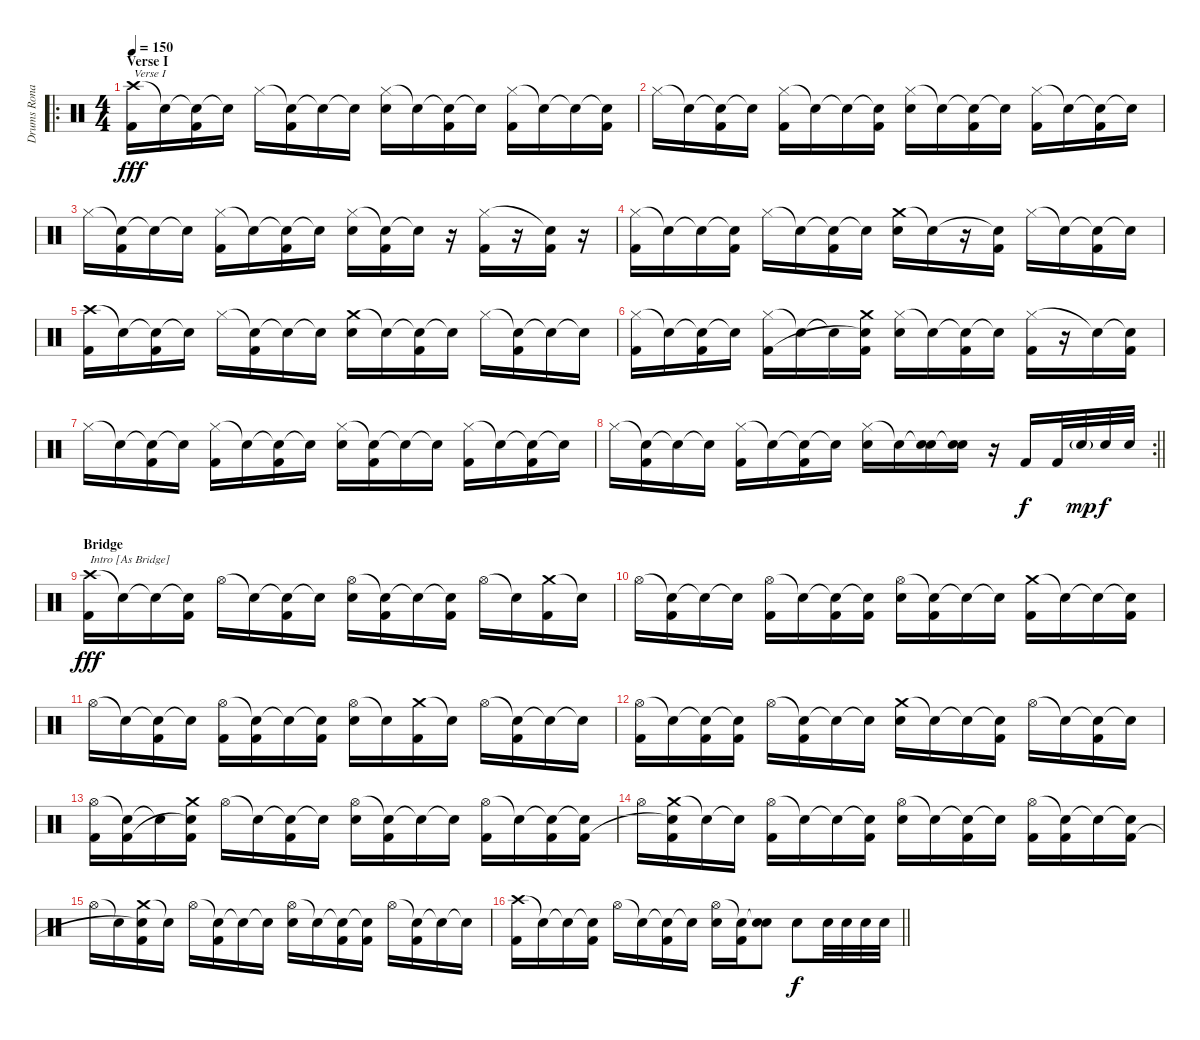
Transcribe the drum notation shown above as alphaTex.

\track ("Drums Ronald Reagen FTW" "Drums Rona") {instrument percussion}
\staff {score}
\articulation defaults
\ro
\ts (4 4)
\section ("" "Verse I")
\tempo 150
\clef neutral
\ks c
("Crash high (hit)" "Kick (hit) 2").16{txt "Verse I" dy fff} "Snare (hit)"{t}.16 ("Snare (hit)"{t} "Kick (hit) 2").16 "Snare (hit)"{t}.16 "Hi-Hat (closed)".16 ("Snare (hit)"{t} "Kick (hit) 2").16 "Snare (hit)"{t}.16 "Snare (hit)"{t}.16 ("Hi-Hat (closed)" "Electric Snare (hit)").16 "Snare (hit)"{t}.16 ("Snare (hit)"{t} "Kick (hit) 2").16 "Snare (hit)"{t}.16 ("Hi-Hat (closed)" "Kick (hit) 2").16 "Snare (hit)"{t}.16 "Snare (hit)"{t}.16 ("Snare (hit)"{t} "Kick (hit) 2").16 |
"Hi-Hat (closed)".16 "Snare (hit)"{t}.16 ("Snare (hit)"{t} "Kick (hit) 2").16 "Snare (hit)"{t}.16 ("Hi-Hat (closed)" "Kick (hit) 2").16 "Snare (hit)"{t}.16 "Snare (hit)"{t}.16 ("Snare (hit)"{t} "Kick (hit) 2").16 ("Hi-Hat (closed)" "Electric Snare (hit)").16 "Snare (hit)"{t}.16 ("Snare (hit)"{t} "Kick (hit) 2").16 "Snare (hit)"{t}.16 ("Hi-Hat (closed)" "Kick (hit) 2").16 "Snare (hit)"{t}.16 ("Snare (hit)"{t} "Kick (hit) 2").16 "Snare (hit)"{t}.16 |
"Hi-Hat (closed)".16 ("Snare (hit)"{t} "Kick (hit) 2").16 "Snare (hit)"{t}.16 "Snare (hit)"{t}.16 ("Hi-Hat (closed)" "Kick (hit) 2").16 "Snare (hit)"{t}.16 ("Snare (hit)"{t} "Kick (hit) 2").16 "Snare (hit)"{t}.16 ("Hi-Hat (closed)" "Electric Snare (hit)").16 ("Snare (hit)"{t} "Kick (hit) 2").16 "Snare (hit)"{t}.16 r.16 ("Hi-Hat (closed)" "Kick (hit) 2").16 r.16 ("Snare (hit)"{t} "Kick (hit) 2").16 r.16 |
("Hi-Hat (closed)" "Kick (hit) 2").16 "Snare (hit)"{t}.16 "Snare (hit)"{t}.16 ("Snare (hit)"{t} "Kick (hit) 2").16 "Hi-Hat (closed)".16 "Snare (hit)"{t}.16 ("Snare (hit)"{t} "Kick (hit) 2").16 "Snare (hit)"{t}.16 ("Crash medium (hit)" "Electric Snare (hit)").16 "Snare (hit)"{t}.16 r.16 ("Snare (hit)"{t} "Kick (hit) 2").16 "Hi-Hat (closed)".16 "Snare (hit)"{t}.16 ("Snare (hit)"{t} "Kick (hit) 2").16 "Snare (hit)"{t}.16 |
("Crash high (hit)" "Kick (hit) 2").16 "Snare (hit)"{t}.16 ("Snare (hit)"{t} "Kick (hit) 2").16 "Snare (hit)"{t}.16 "Hi-Hat (closed)".16 ("Snare (hit)"{t} "Kick (hit) 2").16 "Snare (hit)"{t}.16 "Snare (hit)"{t}.16 ("Crash medium (hit)" "Electric Snare (hit)").16 "Snare (hit)"{t}.16 ("Snare (hit)"{t} "Kick (hit) 2").16 "Snare (hit)"{t}.16 "Hi-Hat (closed)".16 ("Snare (hit)"{t} "Kick (hit) 2").16 "Snare (hit)"{t}.16 "Snare (hit)"{t}.16 |
("Hi-Hat (closed)" "Kick (hit) 2").16 "Snare (hit)"{t}.16 ("Snare (hit)"{t} "Kick (hit) 2").16 "Snare (hit)"{t}.16 ("Hi-Hat (closed)" "Kick (hit) 2").16 "Snare (hit)"{t}.16 "Snare (hit)"{t}.16 ("Crash medium (hit)" "Snare (hit)"{t} "Kick (hit) 2").16 ("Hi-Hat (closed)" "Electric Snare (hit)").16 "Snare (hit)"{t}.16 ("Snare (hit)"{t} "Kick (hit) 2").16 "Snare (hit)"{t}.16 ("Hi-Hat (closed)" "Kick (hit) 2").16 r.16 "Snare (hit)"{t}.16 ("Snare (hit)"{t} "Kick (hit) 2").16 |
"Hi-Hat (closed)".16 "Snare (hit)"{t}.16 ("Snare (hit)"{t} "Kick (hit) 2").16 "Snare (hit)"{t}.16 ("Hi-Hat (closed)" "Kick (hit) 2").16 "Snare (hit)"{t}.16 ("Snare (hit)"{t} "Kick (hit) 2").16 "Snare (hit)"{t}.16 ("Hi-Hat (closed)" "Electric Snare (hit)").16 ("Snare (hit)"{t} "Kick (hit) 2").16 "Snare (hit)"{t}.16 "Snare (hit)"{t}.16 ("Hi-Hat (closed)" "Kick (hit) 2").16 "Snare (hit)"{t}.16 ("Snare (hit)"{t} "Kick (hit) 2").16 "Snare (hit)"{t}.16 |
\rc 2
\barLineRight lightlight "Hi-Hat (closed)".16
("Snare (hit)"{t} "Kick (hit) 2").16 "Snare (hit)"{t}.16 "Snare (hit)"{t}.16 ("Hi-Hat (closed)" "Kick (hit) 2").16 "Snare (hit)"{t}.16 ("Snare (hit)"{t} "Kick (hit) 2").16 "Snare (hit)"{t}.16 ("Hi-Hat (closed)" "Electric Snare (hit)").16 "Snare (hit)"{t}.16 ("Snare (hit)"{t} "Electric Snare (hit)").16 ("Snare (hit)"{t} "Electric Snare (hit)").16 r.16 "Kick (hit) 2".16{dy f} "Kick (hit) 2".32 "Electric Snare (hit)"{g}.32{dy mp} "Electric Snare (hit)".32{dy f} "Electric Snare (hit)".32 |
\section ("" "Bridge")
("Crash high (hit)" "Kick (hit) 2").16{txt "Intro [As Bridge]" dy fff} "Snare (hit)"{t}.16 "Snare (hit)"{t}.16 ("Snare (hit)"{t} "Kick (hit) 2").16 "Hi-Hat (open)".16 "Snare (hit)"{t}.16 ("Snare (hit)"{t} "Kick (hit) 2").16 "Snare (hit)"{t}.16 ("Hi-Hat (open)" "Electric Snare (hit)").16 ("Snare (hit)"{t} "Kick (hit) 2").16 "Snare (hit)"{t}.16 ("Snare (hit)"{t} "Kick (hit) 2").16 "Hi-Hat (open)".16 "Snare (hit)"{t}.16 ("Crash medium (hit)" "Kick (hit) 2").16 "Snare (hit)"{t}.16 |
"Hi-Hat (open)".16 ("Snare (hit)"{t} "Kick (hit) 2").16 "Snare (hit)"{t}.16 "Snare (hit)"{t}.16 ("Hi-Hat (open)" "Kick (hit) 2").16 "Snare (hit)"{t}.16 ("Snare (hit)"{t} "Kick (hit) 2").16 ("Snare (hit)"{t} "Kick (hit) 2").16 ("Hi-Hat (open)" "Electric Snare (hit)").16 ("Snare (hit)"{t} "Kick (hit) 2").16 "Snare (hit)"{t}.16 "Snare (hit)"{t}.16 ("Crash medium (hit)" "Kick (hit) 2").16 "Snare (hit)"{t}.16 "Snare (hit)"{t}.16 ("Snare (hit)"{t} "Kick (hit) 2").16 |
"Hi-Hat (open)".16 "Snare (hit)"{t}.16 ("Snare (hit)"{t} "Kick (hit) 2").16 "Snare (hit)"{t}.16 ("Hi-Hat (open)" "Kick (hit) 2").16 ("Snare (hit)"{t} "Kick (hit) 2").16 "Snare (hit)"{t}.16 ("Snare (hit)"{t} "Kick (hit) 2").16 ("Hi-Hat (open)" "Electric Snare (hit)").16 "Snare (hit)"{t}.16 ("Crash medium (hit)" "Kick (hit) 2").16 "Snare (hit)"{t}.16 "Hi-Hat (open)".16 ("Snare (hit)"{t} "Kick (hit) 2").16 "Snare (hit)"{t}.16 "Snare (hit)"{t}.16 |
("Hi-Hat (open)" "Kick (hit) 2").16 "Snare (hit)"{t}.16 ("Snare (hit)"{t} "Kick (hit) 2").16 ("Snare (hit)"{t} "Kick (hit) 2").16 "Hi-Hat (open)".16 ("Snare (hit)"{t} "Kick (hit) 2").16 "Snare (hit)"{t}.16 "Snare (hit)"{t}.16 ("Crash medium (hit)" "Electric Snare (hit)").16 "Snare (hit)"{t}.16 "Snare (hit)"{t}.16 ("Snare (hit)"{t} "Kick (hit) 2").16 "Hi-Hat (open)".16 "Snare (hit)"{t}.16 ("Snare (hit)"{t} "Kick (hit) 2").16 "Snare (hit)"{t}.16 |
("Hi-Hat (open)" "Kick (hit) 2").16 ("Snare (hit)"{t} "Kick (hit) 2").16 "Snare (hit)"{t}.16 ("Crash medium (hit)" "Snare (hit)"{t} "Kick (hit) 2").16 "Hi-Hat (open)".16 "Snare (hit)"{t}.16 ("Snare (hit)"{t} "Kick (hit) 2").16 "Snare (hit)"{t}.16 ("Hi-Hat (open)" "Electric Snare (hit)").16 ("Snare (hit)"{t} "Kick (hit) 2").16 "Snare (hit)"{t}.16 "Snare (hit)"{t}.16 ("Hi-Hat (open)" "Kick (hit) 2").16 "Snare (hit)"{t}.16 ("Snare (hit)"{t} "Kick (hit) 2").16 ("Snare (hit)"{t} "Kick (hit) 2").16 |
"Hi-Hat (open)".16 ("Crash medium (hit)" "Snare (hit)"{t} "Kick (hit) 2").16 "Snare (hit)"{t}.16 "Snare (hit)"{t}.16 ("Hi-Hat (open)" "Kick (hit) 2").16 "Snare (hit)"{t}.16 "Snare (hit)"{t}.16 ("Snare (hit)"{t} "Kick (hit) 2").16 ("Hi-Hat (open)" "Electric Snare (hit)").16 "Snare (hit)"{t}.16 ("Snare (hit)"{t} "Kick (hit) 2").16 "Snare (hit)"{t}.16 ("Hi-Hat (open)" "Kick (hit) 2").16 ("Snare (hit)"{t} "Kick (hit) 2").16 "Snare (hit)"{t}.16 ("Snare (hit)"{t} "Kick (hit) 2").16 |
"Hi-Hat (open)".16 "Snare (hit)"{t}.16 ("Crash medium (hit)" "Snare (hit)"{t} "Kick (hit) 2").16 "Snare (hit)"{t}.16 "Hi-Hat (open)".16 ("Snare (hit)"{t} "Kick (hit) 2").16 "Snare (hit)"{t}.16 "Snare (hit)"{t}.16 ("Hi-Hat (open)" "Electric Snare (hit)").16 "Snare (hit)"{t}.16 ("Snare (hit)"{t} "Kick (hit) 2").16 ("Snare (hit)"{t} "Kick (hit) 2").16 "Hi-Hat (open)".16 ("Snare (hit)"{t} "Kick (hit) 2").16 "Snare (hit)"{t}.16 "Snare (hit)"{t}.16 |
\barLineRight lightlight
("Crash high (hit)" "Kick (hit) 2").16 "Snare (hit)"{t}.16 "Snare (hit)"{t}.16 ("Snare (hit)"{t} "Kick (hit) 2").16 "Hi-Hat (open)".16 "Snare (hit)"{t}.16 ("Snare (hit)"{t} "Kick (hit) 2").16 "Snare (hit)"{t}.16 ("Hi-Hat (open)" "Electric Snare (hit)").16 ("Snare (hit)"{t} "Kick (hit) 2").16 ("Snare (hit)"{t} "Electric Snare (hit)").8 "Electric Snare (hit)".8{dy f} "Electric Snare (hit)".32 "Electric Snare (hit)".32 "Electric Snare (hit)".32 "Electric Snare (hit)".32
